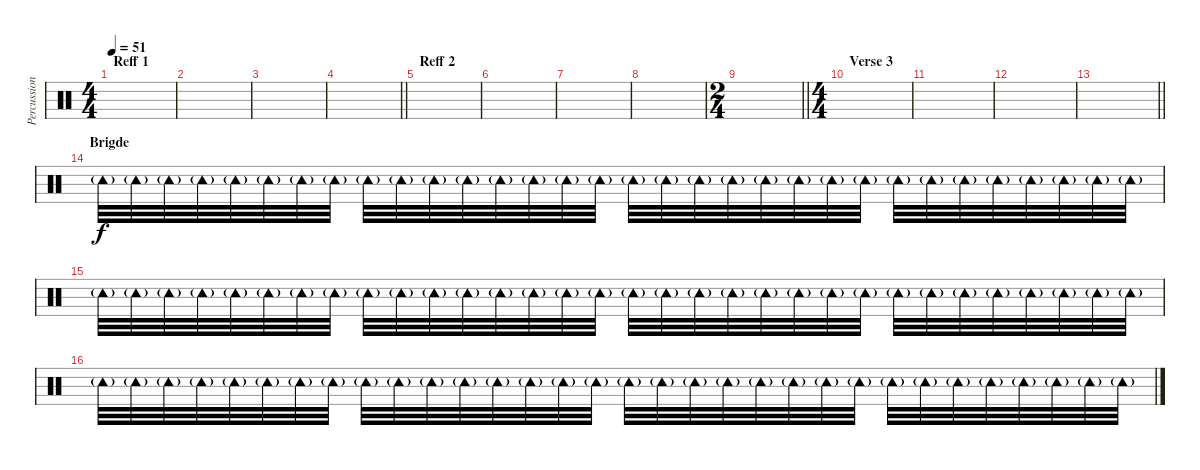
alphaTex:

\track ("Percussion 2" "Percussion") {instrument percussion}
\staff {score}
\articulation defaults
\ts (4 4)
\section ("" "Reff 1")
\tempo 51
\clef neutral
\ks c
|
|
|
\barLineRight lightlight
|
\section ("" "Reff 2")
|
|
|
|
\ts (2 4)
\barLineRight lightlight
|
\ts (4 4)
\section ("" "Verse 3")
|
|
|
\barLineRight lightlight
|
\section ("" "Brigde")
"Tambourine (hit)"{g}.32 "Tambourine (hit)"{g}.32 "Tambourine (hit)"{g}.32 "Tambourine (hit)"{g}.32 "Tambourine (hit)"{g}.32 "Tambourine (hit)"{g}.32 "Tambourine (hit)"{g}.32 "Tambourine (hit)"{g}.32 "Tambourine (hit)"{g}.32 "Tambourine (hit)"{g}.32 "Tambourine (hit)"{g}.32 "Tambourine (hit)"{g}.32 "Tambourine (hit)"{g}.32 "Tambourine (hit)"{g}.32 "Tambourine (hit)"{g}.32 "Tambourine (hit)"{g}.32 "Tambourine (hit)"{g}.32 "Tambourine (hit)"{g}.32 "Tambourine (hit)"{g}.32 "Tambourine (hit)"{g}.32 "Tambourine (hit)"{g}.32 "Tambourine (hit)"{g}.32 "Tambourine (hit)"{g}.32 "Tambourine (hit)"{g}.32 "Tambourine (hit)"{g}.32 "Tambourine (hit)"{g}.32 "Tambourine (hit)"{g}.32 "Tambourine (hit)"{g}.32 "Tambourine (hit)"{g}.32 "Tambourine (hit)"{g}.32 "Tambourine (hit)"{g}.32 "Tambourine (hit)"{g}.32 |
"Tambourine (hit)"{g}.32 "Tambourine (hit)"{g}.32 "Tambourine (hit)"{g}.32 "Tambourine (hit)"{g}.32 "Tambourine (hit)"{g}.32 "Tambourine (hit)"{g}.32 "Tambourine (hit)"{g}.32 "Tambourine (hit)"{g}.32 "Tambourine (hit)"{g}.32 "Tambourine (hit)"{g}.32 "Tambourine (hit)"{g}.32 "Tambourine (hit)"{g}.32 "Tambourine (hit)"{g}.32 "Tambourine (hit)"{g}.32 "Tambourine (hit)"{g}.32 "Tambourine (hit)"{g}.32 "Tambourine (hit)"{g}.32 "Tambourine (hit)"{g}.32 "Tambourine (hit)"{g}.32 "Tambourine (hit)"{g}.32 "Tambourine (hit)"{g}.32 "Tambourine (hit)"{g}.32 "Tambourine (hit)"{g}.32 "Tambourine (hit)"{g}.32 "Tambourine (hit)"{g}.32 "Tambourine (hit)"{g}.32 "Tambourine (hit)"{g}.32 "Tambourine (hit)"{g}.32 "Tambourine (hit)"{g}.32 "Tambourine (hit)"{g}.32 "Tambourine (hit)"{g}.32 "Tambourine (hit)"{g}.32 |
"Tambourine (hit)"{g}.32 "Tambourine (hit)"{g}.32 "Tambourine (hit)"{g}.32 "Tambourine (hit)"{g}.32 "Tambourine (hit)"{g}.32 "Tambourine (hit)"{g}.32 "Tambourine (hit)"{g}.32 "Tambourine (hit)"{g}.32 "Tambourine (hit)"{g}.32 "Tambourine (hit)"{g}.32 "Tambourine (hit)"{g}.32 "Tambourine (hit)"{g}.32 "Tambourine (hit)"{g}.32 "Tambourine (hit)"{g}.32 "Tambourine (hit)"{g}.32 "Tambourine (hit)"{g}.32 "Tambourine (hit)"{g}.32 "Tambourine (hit)"{g}.32 "Tambourine (hit)"{g}.32 "Tambourine (hit)"{g}.32 "Tambourine (hit)"{g}.32 "Tambourine (hit)"{g}.32 "Tambourine (hit)"{g}.32 "Tambourine (hit)"{g}.32 "Tambourine (hit)"{g}.32 "Tambourine (hit)"{g}.32 "Tambourine (hit)"{g}.32 "Tambourine (hit)"{g}.32 "Tambourine (hit)"{g}.32 "Tambourine (hit)"{g}.32 "Tambourine (hit)"{g}.32 "Tambourine (hit)"{g}.32
